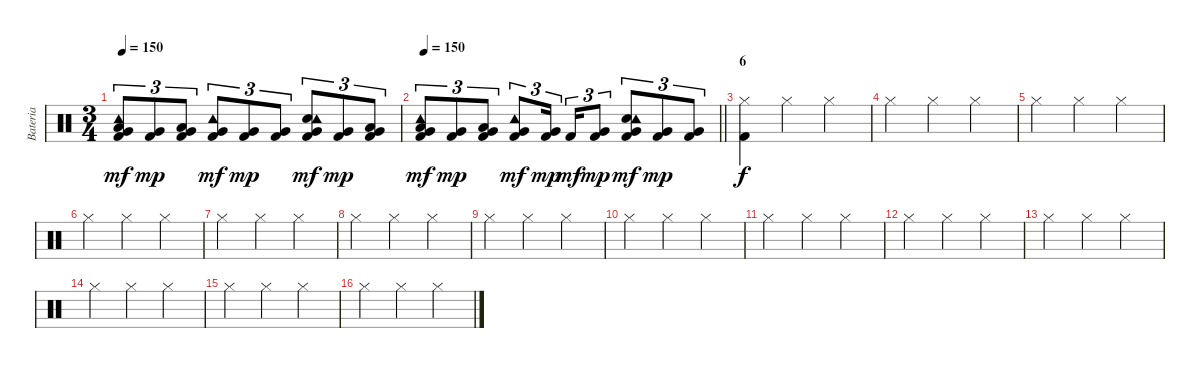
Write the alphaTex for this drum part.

\track ("Bateria" "Bateria") {instrument percussion}
\staff {score}
\articulation defaults
\ts (3 4)
\tempo 150
\clef neutral
\ks c
("Low Floor Tom (hit)" "Very Low Tom (hit)" "Kick (hit) 2" "Tambourine (hit)").8{tu (3 2) dy mf} ("Very Low Tom (hit)" "Kick (hit) 2").8{tu (3 2) dy mp} ("Low Floor Tom (hit)" "Very Low Tom (hit)" "Kick (hit) 2").8{tu (3 2)} ("Very Low Tom (hit)" "Kick (hit) 2" "Tambourine (hit)").8{tu (3 2) dy mf} ("Very Low Tom (hit)" "Kick (hit) 2").8{tu (3 2) dy mp} ("Very Low Tom (hit)" "Kick (hit) 2").8{tu (3 2)} ("Electric Snare (hit)" "Very Low Tom (hit)" "Kick (hit) 2" "Tambourine (hit)").8{tu (3 2) dy mf} ("Very Low Tom (hit)" "Kick (hit) 2").8{tu (3 2) dy mp} ("Low Floor Tom (hit)" "Very Low Tom (hit)" "Kick (hit) 2").8{tu (3 2)} |
\tempo 150
\barLineRight lightlight
("Low Floor Tom (hit)" "Very Low Tom (hit)" "Kick (hit) 2" "Tambourine (hit)").8{tu (3 2) dy mf} ("Very Low Tom (hit)" "Kick (hit) 2").8{tu (3 2) dy mp} ("Low Floor Tom (hit)" "Very Low Tom (hit)" "Kick (hit) 2").8{tu (3 2)} ("Very Low Tom (hit)" "Kick (hit) 2" "Tambourine (hit)").8{tu (3 2) dy mf} ("Very Low Tom (hit)" "Kick (hit) 2").16{tu (3 2) dy mp beam splitsecondary} "Kick (hit) 2".16{tu (3 2) dy mf} ("Very Low Tom (hit)" "Kick (hit) 2").8{tu (3 2) dy mp} ("Electric Snare (hit)" "Very Low Tom (hit)" "Kick (hit) 2" "Tambourine (hit)").8{tu (3 2) dy mf} ("Very Low Tom (hit)" "Kick (hit) 2").8{tu (3 2) dy mp} ("Very Low Tom (hit)" "Kick (hit) 2").8{tu (3 2)} |
\section ("" "6")
("Hi-Hat (closed)" "Kick (hit) 2").4{dy f} "Hi-Hat (closed)".4 "Hi-Hat (closed)".4 |
"Hi-Hat (closed)".4 "Hi-Hat (closed)".4 "Hi-Hat (closed)".4 |
"Hi-Hat (closed)".4 "Hi-Hat (closed)".4 "Hi-Hat (closed)".4 |
"Hi-Hat (closed)".4 "Hi-Hat (closed)".4 "Hi-Hat (closed)".4 |
"Hi-Hat (closed)".4 "Hi-Hat (closed)".4 "Hi-Hat (closed)".4 |
"Hi-Hat (closed)".4 "Hi-Hat (closed)".4 "Hi-Hat (closed)".4 |
"Hi-Hat (closed)".4 "Hi-Hat (closed)".4 "Hi-Hat (closed)".4 |
"Hi-Hat (closed)".4 "Hi-Hat (closed)".4 "Hi-Hat (closed)".4 |
"Hi-Hat (closed)".4 "Hi-Hat (closed)".4 "Hi-Hat (closed)".4 |
"Hi-Hat (closed)".4 "Hi-Hat (closed)".4 "Hi-Hat (closed)".4 |
"Hi-Hat (closed)".4 "Hi-Hat (closed)".4 "Hi-Hat (closed)".4 |
"Hi-Hat (closed)".4 "Hi-Hat (closed)".4 "Hi-Hat (closed)".4 |
"Hi-Hat (closed)".4 "Hi-Hat (closed)".4 "Hi-Hat (closed)".4 |
"Hi-Hat (closed)".4 "Hi-Hat (closed)".4 "Hi-Hat (closed)".4
